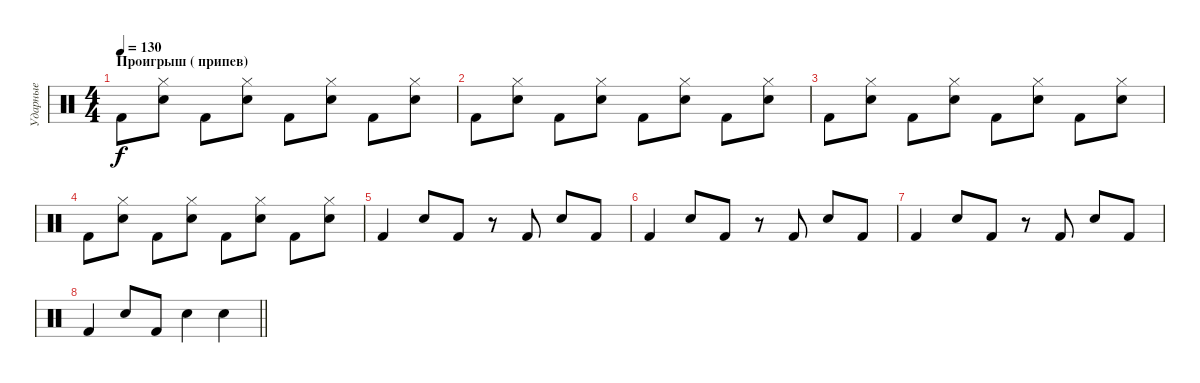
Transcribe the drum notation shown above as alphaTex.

\track ("Ударные" "Ударные") {instrument percussion}
\staff {score}
\articulation defaults
\ts (4 4)
\section ("" "Проигрыш ( припев)")
\tempo 130
\clef neutral
\ks c "Kick (hit) 2".8{dy f}
("Hi-Hat (closed)" "Snare (hit) 2").8 "Kick (hit) 2".8 ("Hi-Hat (closed)" "Snare (hit) 2").8 "Kick (hit) 2".8 ("Hi-Hat (closed)" "Snare (hit) 2").8 "Kick (hit) 2".8 ("Hi-Hat (closed)" "Snare (hit) 2").8 |
"Kick (hit) 2".8 ("Hi-Hat (closed)" "Snare (hit) 2").8 "Kick (hit) 2".8 ("Hi-Hat (closed)" "Snare (hit) 2").8 "Kick (hit) 2".8 ("Hi-Hat (closed)" "Snare (hit) 2").8 "Kick (hit) 2".8 ("Hi-Hat (closed)" "Snare (hit) 2").8 |
"Kick (hit) 2".8 ("Hi-Hat (closed)" "Snare (hit) 2").8 "Kick (hit) 2".8 ("Hi-Hat (closed)" "Snare (hit) 2").8 "Kick (hit) 2".8 ("Hi-Hat (closed)" "Snare (hit) 2").8 "Kick (hit) 2".8 ("Hi-Hat (closed)" "Snare (hit) 2").8 |
"Kick (hit) 2".8 ("Hi-Hat (closed)" "Snare (hit) 2").8 "Kick (hit) 2".8 ("Hi-Hat (closed)" "Snare (hit) 2").8 "Kick (hit) 2".8 ("Hi-Hat (closed)" "Snare (hit) 2").8 "Kick (hit) 2".8 ("Hi-Hat (closed)" "Snare (hit) 2").8 |
"Kick (hit) 2".4 "Snare (hit) 2".8 "Kick (hit) 2".8 r.8 "Kick (hit) 2".8 "Snare (hit) 2".8 "Kick (hit) 2".8 |
"Kick (hit) 2".4 "Snare (hit) 2".8 "Kick (hit) 2".8 r.8 "Kick (hit) 2".8 "Snare (hit) 2".8 "Kick (hit) 2".8 |
"Kick (hit) 2".4 "Snare (hit) 2".8 "Kick (hit) 2".8 r.8 "Kick (hit) 2".8 "Snare (hit) 2".8 "Kick (hit) 2".8 |
\barLineRight lightlight "Kick (hit) 2".4 "Snare (hit) 2".8 "Kick (hit) 2".8 "Snare (hit) 2".4 "Snare (hit) 2".4
